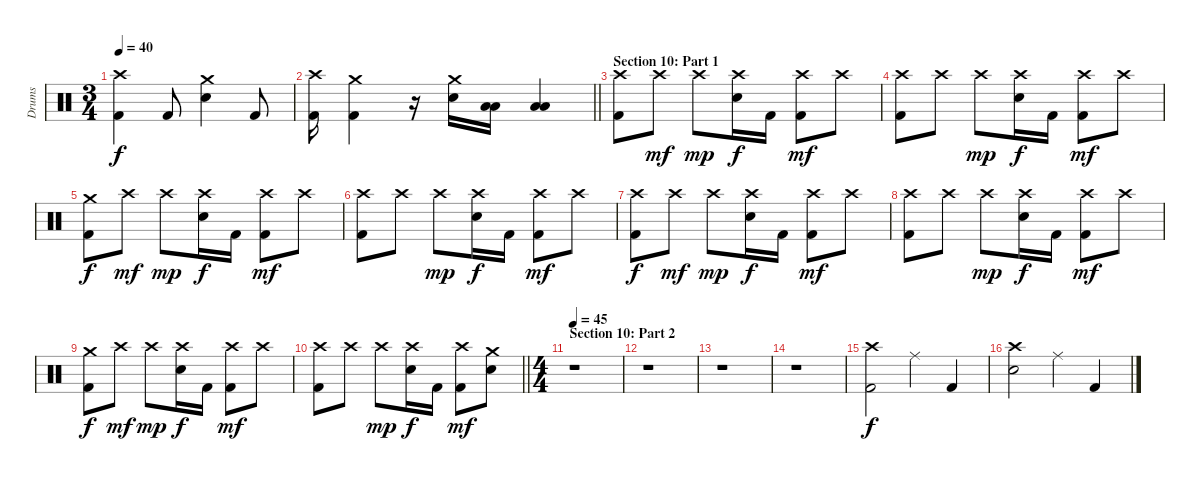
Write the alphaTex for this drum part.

\track ("Drums" "Drums") {instrument percussion}
\staff {score}
\articulation defaults
\ts (3 4)
\tempo 40
\clef neutral
\ks c
("Crash high (hit)" "Kick (hit) 2").4{dy f} "Kick (hit) 2".8 ("Crash medium (hit)" "Electric Snare (hit)").4 "Kick (hit) 2".8 |
\barLineRight lightlight
("Crash high (hit)" "Kick (hit) 2").16 ("Crash medium (hit)" "Kick (hit) 2").4 r.16 ("Crash medium (hit)" "Electric Snare (hit)").16 ("Low Tom (hit)" "Low Tom (hit)").16{bu 60} ("Low Tom (hit)" "Low Tom (hit)").4{bu 60} |
\section ("" "Section 10: Part 1")
("Crash high (hit)" "Kick (hit) 2").8 "Crash high (hit)".8{dy mf} "Crash high (hit)".8{dy mp} ("Crash high (hit)" "Electric Snare (hit)").16{dy f} "Kick (hit) 2".16 ("Crash high (hit)" "Kick (hit) 2").8{dy mf} "Crash high (hit)".8 |
("Crash high (hit)" "Kick (hit) 2").8 "Crash high (hit)".8 "Crash high (hit)".8{dy mp} ("Crash high (hit)" "Electric Snare (hit)").16{dy f} "Kick (hit) 2".16 ("Crash high (hit)" "Kick (hit) 2").8{dy mf} "Crash high (hit)".8 |
("Crash medium (hit)" "Kick (hit) 2").8{dy f} "Crash high (hit)".8{dy mf} "Crash high (hit)".8{dy mp} ("Crash high (hit)" "Electric Snare (hit)").16{dy f} "Kick (hit) 2".16 ("Crash high (hit)" "Kick (hit) 2").8{dy mf} "Crash high (hit)".8 |
("Crash high (hit)" "Kick (hit) 2").8 "Crash high (hit)".8 "Crash high (hit)".8{dy mp} ("Crash high (hit)" "Electric Snare (hit)").16{dy f} "Kick (hit) 2".16 ("Crash high (hit)" "Kick (hit) 2").8{dy mf} "Crash high (hit)".8 |
("Crash high (hit)" "Kick (hit) 2").8{dy f} "Crash high (hit)".8{dy mf} "Crash high (hit)".8{dy mp} ("Crash high (hit)" "Electric Snare (hit)").16{dy f} "Kick (hit) 2".16 ("Crash high (hit)" "Kick (hit) 2").8{dy mf} "Crash high (hit)".8 |
("Crash high (hit)" "Kick (hit) 2").8 "Crash high (hit)".8 "Crash high (hit)".8{dy mp} ("Crash high (hit)" "Electric Snare (hit)").16{dy f} "Kick (hit) 2".16 ("Crash high (hit)" "Kick (hit) 2").8{dy mf} "Crash high (hit)".8 |
("Crash medium (hit)" "Kick (hit) 2").8{dy f} "Crash high (hit)".8{dy mf} "Crash high (hit)".8{dy mp} ("Crash high (hit)" "Electric Snare (hit)").16{dy f} "Kick (hit) 2".16 ("Crash high (hit)" "Kick (hit) 2").8{dy mf} "Crash high (hit)".8 |
\barLineRight lightlight
("Crash high (hit)" "Kick (hit) 2").8 "Crash high (hit)".8 "Crash high (hit)".8{dy mp} ("Crash high (hit)" "Electric Snare (hit)").16{dy f} "Kick (hit) 2".16 ("Crash high (hit)" "Kick (hit) 2").8{dy mf} ("Crash medium (hit)" "Electric Snare (hit)").8 |
\ts (4 4)
\section ("" "Section 10: Part 2")
\tempo 45
r.1 |
r.1 |
r.1 |
r.1 |
("Crash high (hit)" "Kick (hit) 2").2{dy f} "Ride (middle)".4 "Kick (hit) 2".4 |
("Crash high (hit)" "Electric Snare (hit)").2 "Ride (middle)".4 "Kick (hit) 2".4
